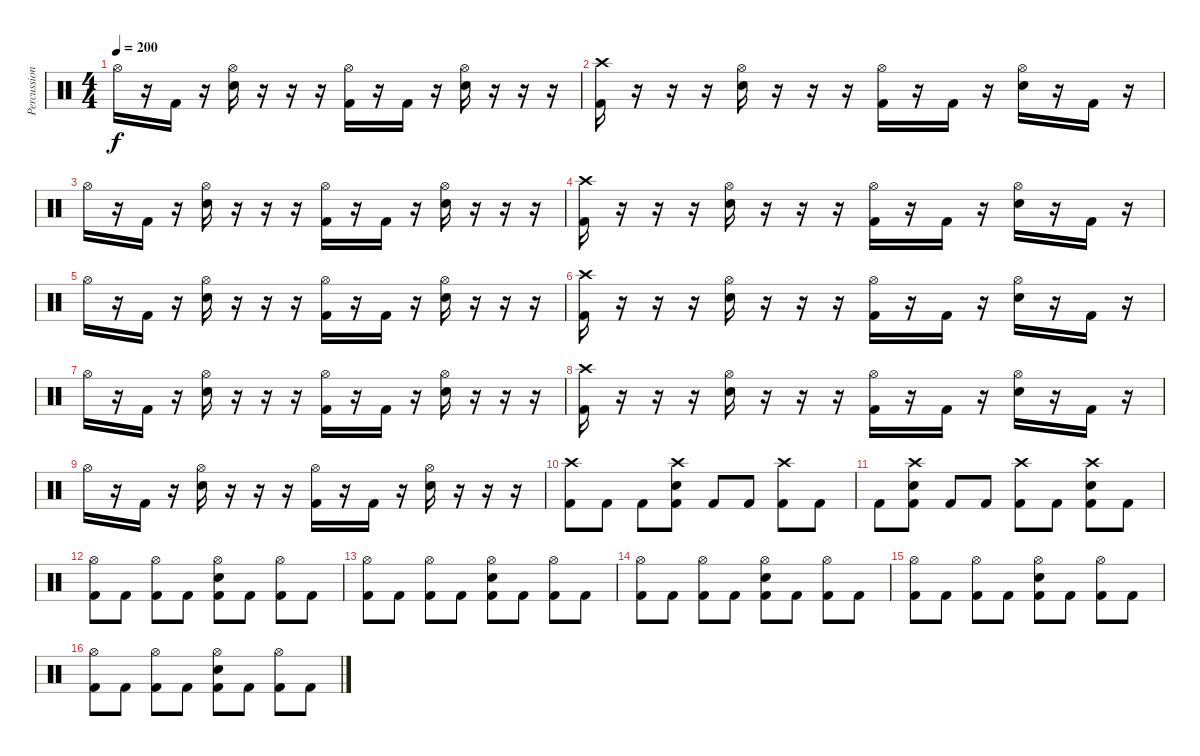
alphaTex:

\track ("Percussion" "Percussion") {instrument percussion}
\staff {score}
\articulation defaults
\ts (4 4)
\tempo 200
\clef neutral
\ks c "Hi-Hat (open)".16{dy f}
r.16 "Kick (hit) 2".16 r.16 ("Hi-Hat (open)" "Snare (hit) 2").16 r.16 r.16 r.16 ("Hi-Hat (open)" "Kick (hit) 2").16 r.16 "Kick (hit) 2".16 r.16 ("Hi-Hat (open)" "Snare (hit) 2").16 r.16 r.16 r.16 |
("Crash high (hit)" "Kick (hit) 2").16 r.16 r.16 r.16 ("Hi-Hat (open)" "Snare (hit) 2").16 r.16 r.16 r.16 ("Hi-Hat (open)" "Kick (hit) 2").16 r.16 "Kick (hit) 2".16 r.16 ("Hi-Hat (open)" "Snare (hit) 2").16 r.16 "Kick (hit) 2".16 r.16 |
"Hi-Hat (open)".16 r.16 "Kick (hit) 2".16 r.16 ("Hi-Hat (open)" "Snare (hit) 2").16 r.16 r.16 r.16 ("Hi-Hat (open)" "Kick (hit) 2").16 r.16 "Kick (hit) 2".16 r.16 ("Hi-Hat (open)" "Snare (hit) 2").16 r.16 r.16 r.16 |
("Crash high (hit)" "Kick (hit) 2").16 r.16 r.16 r.16 ("Hi-Hat (open)" "Snare (hit) 2").16 r.16 r.16 r.16 ("Hi-Hat (open)" "Kick (hit) 2").16 r.16 "Kick (hit) 2".16 r.16 ("Hi-Hat (open)" "Snare (hit) 2").16 r.16 "Kick (hit) 2".16 r.16 |
"Hi-Hat (open)".16 r.16 "Kick (hit) 2".16 r.16 ("Hi-Hat (open)" "Snare (hit) 2").16 r.16 r.16 r.16 ("Hi-Hat (open)" "Kick (hit) 2").16 r.16 "Kick (hit) 2".16 r.16 ("Hi-Hat (open)" "Snare (hit) 2").16 r.16 r.16 r.16 |
("Crash high (hit)" "Kick (hit) 2").16 r.16 r.16 r.16 ("Hi-Hat (open)" "Snare (hit) 2").16 r.16 r.16 r.16 ("Hi-Hat (open)" "Kick (hit) 2").16 r.16 "Kick (hit) 2".16 r.16 ("Hi-Hat (open)" "Snare (hit) 2").16 r.16 "Kick (hit) 2".16 r.16 |
"Hi-Hat (open)".16 r.16 "Kick (hit) 2".16 r.16 ("Hi-Hat (open)" "Snare (hit) 2").16 r.16 r.16 r.16 ("Hi-Hat (open)" "Kick (hit) 2").16 r.16 "Kick (hit) 2".16 r.16 ("Hi-Hat (open)" "Snare (hit) 2").16 r.16 r.16 r.16 |
("Crash high (hit)" "Kick (hit) 2").16 r.16 r.16 r.16 ("Hi-Hat (open)" "Snare (hit) 2").16 r.16 r.16 r.16 ("Hi-Hat (open)" "Kick (hit) 2").16 r.16 "Kick (hit) 2".16 r.16 ("Hi-Hat (open)" "Snare (hit) 2").16 r.16 "Kick (hit) 2".16 r.16 |
"Hi-Hat (open)".16 r.16 "Kick (hit) 2".16 r.16 ("Hi-Hat (open)" "Snare (hit) 2").16 r.16 r.16 r.16 ("Hi-Hat (open)" "Kick (hit) 2").16 r.16 "Kick (hit) 2".16 r.16 ("Hi-Hat (open)" "Snare (hit) 2").16 r.16 r.16 r.16 |
("Crash high (hit)" "Kick (hit) 2").8 "Kick (hit) 2".8 "Kick (hit) 2".8 ("Crash high (hit)" "Snare (hit) 2" "Kick (hit) 2").8 "Kick (hit) 2".8 "Kick (hit) 2".8 ("Crash high (hit)" "Kick (hit) 2").8 "Kick (hit) 2".8 |
"Kick (hit) 2".8 ("Crash high (hit)" "Snare (hit) 2" "Kick (hit) 2").8 "Kick (hit) 2".8 "Kick (hit) 2".8 ("Crash high (hit)" "Kick (hit) 2").8 "Kick (hit) 2".8 ("Crash high (hit)" "Snare (hit) 2" "Kick (hit) 2").8 "Kick (hit) 2".8 |
("Hi-Hat (open)" "Kick (hit) 2").8 "Kick (hit) 2".8 ("Hi-Hat (open)" "Kick (hit) 2").8 "Kick (hit) 2".8 ("Hi-Hat (open)" "Snare (hit) 2" "Kick (hit) 2").8 "Kick (hit) 2".8 ("Hi-Hat (open)" "Kick (hit) 2").8 "Kick (hit) 2".8 |
("Hi-Hat (open)" "Kick (hit) 2").8 "Kick (hit) 2".8 ("Hi-Hat (open)" "Kick (hit) 2").8 "Kick (hit) 2".8 ("Hi-Hat (open)" "Snare (hit) 2" "Kick (hit) 2").8 "Kick (hit) 2".8 ("Hi-Hat (open)" "Kick (hit) 2").8 "Kick (hit) 2".8 |
("Hi-Hat (open)" "Kick (hit) 2").8 "Kick (hit) 2".8 ("Hi-Hat (open)" "Kick (hit) 2").8 "Kick (hit) 2".8 ("Hi-Hat (open)" "Snare (hit) 2" "Kick (hit) 2").8 "Kick (hit) 2".8 ("Hi-Hat (open)" "Kick (hit) 2").8 "Kick (hit) 2".8 |
("Hi-Hat (open)" "Kick (hit) 2").8 "Kick (hit) 2".8 ("Hi-Hat (open)" "Kick (hit) 2").8 "Kick (hit) 2".8 ("Hi-Hat (open)" "Snare (hit) 2" "Kick (hit) 2").8 "Kick (hit) 2".8 ("Hi-Hat (open)" "Kick (hit) 2").8 "Kick (hit) 2".8 |
("Hi-Hat (open)" "Kick (hit) 2").8 "Kick (hit) 2".8 ("Hi-Hat (open)" "Kick (hit) 2").8 "Kick (hit) 2".8 ("Hi-Hat (open)" "Snare (hit) 2" "Kick (hit) 2").8 "Kick (hit) 2".8 ("Hi-Hat (open)" "Kick (hit) 2").8 "Kick (hit) 2".8
